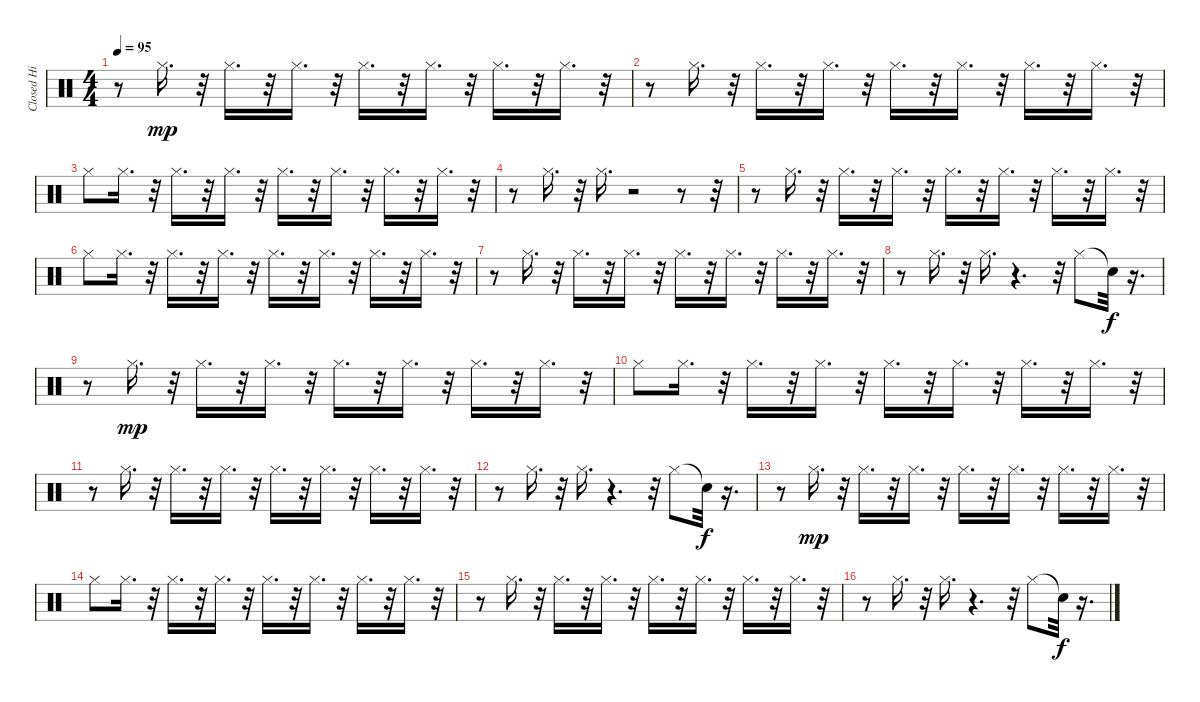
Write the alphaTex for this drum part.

\track ("Closed Hi Hat" "Closed Hi ") {instrument percussion}
\staff {score}
\articulation defaults
\ts (4 4)
\tempo 95
\clef neutral
\ks c
r.8{dy f} "Hi-Hat (closed)".16{d dy mp} r.32 "Hi-Hat (closed)".16{d} r.32 "Hi-Hat (closed)".16{d} r.32 "Hi-Hat (closed)".16{d} r.32 "Hi-Hat (closed)".16{d} r.32 "Hi-Hat (closed)".16{d} r.32 "Hi-Hat (closed)".16{d} r.32 |
r.8 "Hi-Hat (closed)".16{d} r.32 "Hi-Hat (closed)".16{d} r.32 "Hi-Hat (closed)".16{d} r.32 "Hi-Hat (closed)".16{d} r.32 "Hi-Hat (closed)".16{d} r.32 "Hi-Hat (closed)".16{d} r.32 "Hi-Hat (closed)".16{d} r.32 |
"Hi-Hat (closed)".8 "Hi-Hat (closed)".16{d} r.32 "Hi-Hat (closed)".16{d} r.32 "Hi-Hat (closed)".16{d} r.32 "Hi-Hat (closed)".16{d} r.32 "Hi-Hat (closed)".16{d} r.32 "Hi-Hat (closed)".16{d} r.32 "Hi-Hat (closed)".16{d} r.32 |
r.8 "Hi-Hat (closed)".16{d} r.32 "Hi-Hat (closed)".16{d} r.2 r.8 r.32 |
r.8 "Hi-Hat (closed)".16{d} r.32 "Hi-Hat (closed)".16{d} r.32 "Hi-Hat (closed)".16{d} r.32 "Hi-Hat (closed)".16{d} r.32 "Hi-Hat (closed)".16{d} r.32 "Hi-Hat (closed)".16{d} r.32 "Hi-Hat (closed)".16{d} r.32 |
"Hi-Hat (closed)".8 "Hi-Hat (closed)".16{d} r.32 "Hi-Hat (closed)".16{d} r.32 "Hi-Hat (closed)".16{d} r.32 "Hi-Hat (closed)".16{d} r.32 "Hi-Hat (closed)".16{d} r.32 "Hi-Hat (closed)".16{d} r.32 "Hi-Hat (closed)".16{d} r.32 |
r.8 "Hi-Hat (closed)".16{d} r.32 "Hi-Hat (closed)".16{d} r.32 "Hi-Hat (closed)".16{d} r.32 "Hi-Hat (closed)".16{d} r.32 "Hi-Hat (closed)".16{d} r.32 "Hi-Hat (closed)".16{d} r.32 "Hi-Hat (closed)".16{d} r.32 |
r.8 "Hi-Hat (closed)".16{d} r.32 "Hi-Hat (closed)".16{d} r.4{d} r.32 "Hi-Hat (closed)".8 "Snare (hit)"{t}.32{dy f} r.16{d} |
r.8 "Hi-Hat (closed)".16{d dy mp} r.32 "Hi-Hat (closed)".16{d} r.32 "Hi-Hat (closed)".16{d} r.32 "Hi-Hat (closed)".16{d} r.32 "Hi-Hat (closed)".16{d} r.32 "Hi-Hat (closed)".16{d} r.32 "Hi-Hat (closed)".16{d} r.32 |
"Hi-Hat (closed)".8 "Hi-Hat (closed)".16{d} r.32 "Hi-Hat (closed)".16{d} r.32 "Hi-Hat (closed)".16{d} r.32 "Hi-Hat (closed)".16{d} r.32 "Hi-Hat (closed)".16{d} r.32 "Hi-Hat (closed)".16{d} r.32 "Hi-Hat (closed)".16{d} r.32 |
r.8 "Hi-Hat (closed)".16{d} r.32 "Hi-Hat (closed)".16{d} r.32 "Hi-Hat (closed)".16{d} r.32 "Hi-Hat (closed)".16{d} r.32 "Hi-Hat (closed)".16{d} r.32 "Hi-Hat (closed)".16{d} r.32 "Hi-Hat (closed)".16{d} r.32 |
r.8 "Hi-Hat (closed)".16{d} r.32 "Hi-Hat (closed)".16{d} r.4{d} r.32 "Hi-Hat (closed)".8 "Snare (hit)"{t}.32{dy f} r.16{d} |
r.8 "Hi-Hat (closed)".16{d dy mp} r.32 "Hi-Hat (closed)".16{d} r.32 "Hi-Hat (closed)".16{d} r.32 "Hi-Hat (closed)".16{d} r.32 "Hi-Hat (closed)".16{d} r.32 "Hi-Hat (closed)".16{d} r.32 "Hi-Hat (closed)".16{d} r.32 |
"Hi-Hat (closed)".8 "Hi-Hat (closed)".16{d} r.32 "Hi-Hat (closed)".16{d} r.32 "Hi-Hat (closed)".16{d} r.32 "Hi-Hat (closed)".16{d} r.32 "Hi-Hat (closed)".16{d} r.32 "Hi-Hat (closed)".16{d} r.32 "Hi-Hat (closed)".16{d} r.32 |
r.8 "Hi-Hat (closed)".16{d} r.32 "Hi-Hat (closed)".16{d} r.32 "Hi-Hat (closed)".16{d} r.32 "Hi-Hat (closed)".16{d} r.32 "Hi-Hat (closed)".16{d} r.32 "Hi-Hat (closed)".16{d} r.32 "Hi-Hat (closed)".16{d} r.32 |
r.8 "Hi-Hat (closed)".16{d} r.32 "Hi-Hat (closed)".16{d} r.4{d} r.32 "Hi-Hat (closed)".8 "Snare (hit)"{t}.32{dy f} r.16{d}
